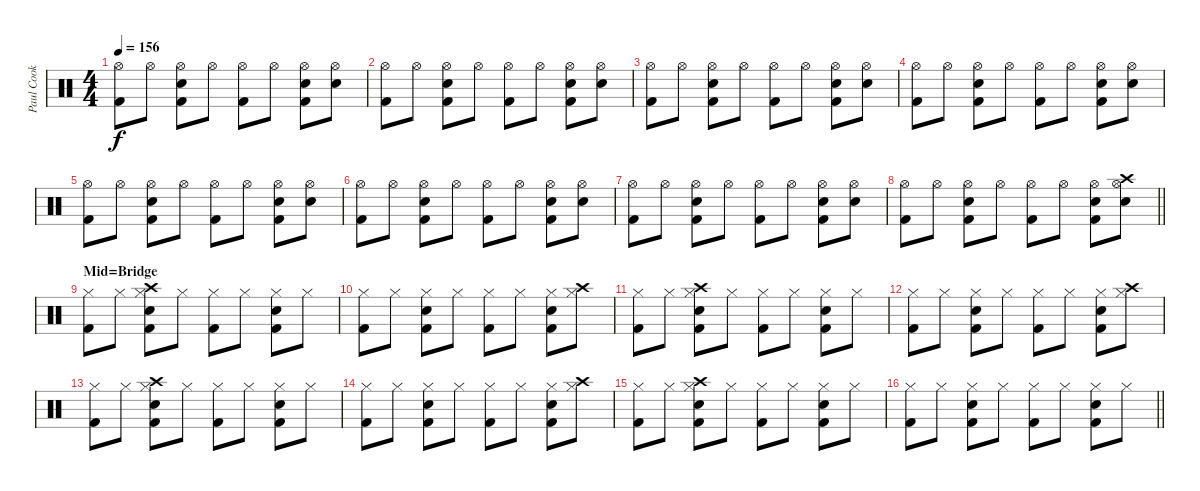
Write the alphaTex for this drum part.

\track ("Paul Cook" "Paul Cook") {instrument percussion}
\staff {score}
\articulation defaults
\ts (4 4)
\tempo 156
\clef neutral
\ks c
("Hi-Hat (open)" "Kick (hit) 2").8{dy f} "Hi-Hat (open)".8 ("Hi-Hat (open)" "Kick (hit) 2" "Snare (hit) 2").8 "Hi-Hat (open)".8 ("Hi-Hat (open)" "Kick (hit) 2").8 "Hi-Hat (open)".8 ("Hi-Hat (open)" "Kick (hit) 2" "Snare (hit) 2").8 ("Hi-Hat (open)" "Snare (hit) 2").8 |
("Hi-Hat (open)" "Kick (hit) 2").8 "Hi-Hat (open)".8 ("Hi-Hat (open)" "Kick (hit) 2" "Snare (hit) 2").8 "Hi-Hat (open)".8 ("Hi-Hat (open)" "Kick (hit) 2").8 "Hi-Hat (open)".8 ("Hi-Hat (open)" "Kick (hit) 2" "Snare (hit) 2").8 ("Hi-Hat (open)" "Snare (hit) 2").8 |
("Hi-Hat (open)" "Kick (hit) 2").8 "Hi-Hat (open)".8 ("Hi-Hat (open)" "Kick (hit) 2" "Snare (hit) 2").8 "Hi-Hat (open)".8 ("Hi-Hat (open)" "Kick (hit) 2").8 "Hi-Hat (open)".8 ("Hi-Hat (open)" "Kick (hit) 2" "Snare (hit) 2").8 ("Hi-Hat (open)" "Snare (hit) 2").8 |
("Hi-Hat (open)" "Kick (hit) 2").8 "Hi-Hat (open)".8 ("Hi-Hat (open)" "Kick (hit) 2" "Snare (hit) 2").8 "Hi-Hat (open)".8 ("Hi-Hat (open)" "Kick (hit) 2").8 "Hi-Hat (open)".8 ("Hi-Hat (open)" "Kick (hit) 2" "Snare (hit) 2").8 ("Hi-Hat (open)" "Snare (hit) 2").8 |
("Hi-Hat (open)" "Kick (hit) 2").8 "Hi-Hat (open)".8 ("Hi-Hat (open)" "Kick (hit) 2" "Snare (hit) 2").8 "Hi-Hat (open)".8 ("Hi-Hat (open)" "Kick (hit) 2").8 "Hi-Hat (open)".8 ("Hi-Hat (open)" "Kick (hit) 2" "Snare (hit) 2").8 ("Hi-Hat (open)" "Snare (hit) 2").8 |
("Hi-Hat (open)" "Kick (hit) 2").8 "Hi-Hat (open)".8 ("Hi-Hat (open)" "Kick (hit) 2" "Snare (hit) 2").8 "Hi-Hat (open)".8 ("Hi-Hat (open)" "Kick (hit) 2").8 "Hi-Hat (open)".8 ("Hi-Hat (open)" "Kick (hit) 2" "Snare (hit) 2").8 ("Hi-Hat (open)" "Snare (hit) 2").8 |
("Hi-Hat (open)" "Kick (hit) 2").8 "Hi-Hat (open)".8 ("Hi-Hat (open)" "Kick (hit) 2" "Snare (hit) 2").8 "Hi-Hat (open)".8 ("Hi-Hat (open)" "Kick (hit) 2").8 "Hi-Hat (open)".8 ("Hi-Hat (open)" "Kick (hit) 2" "Snare (hit) 2").8 ("Hi-Hat (open)" "Snare (hit) 2").8 |
\barLineRight lightlight
("Hi-Hat (open)" "Kick (hit) 2").8 "Hi-Hat (open)".8 ("Hi-Hat (open)" "Kick (hit) 2" "Snare (hit) 2").8 "Hi-Hat (open)".8 ("Hi-Hat (open)" "Kick (hit) 2").8 "Hi-Hat (open)".8 ("Hi-Hat (open)" "Kick (hit) 2" "Snare (hit) 2").8 ("Hi-Hat (open)" "Snare (hit) 2" "Crash high (hit)").8 |
\section ("" "Mid=Bridge")
("Hi-Hat (closed)" "Kick (hit) 2").8 "Hi-Hat (closed)".8 ("Hi-Hat (closed)" "Kick (hit) 2" "Snare (hit) 2" "Crash high (hit)").8 "Hi-Hat (closed)".8 ("Hi-Hat (closed)" "Kick (hit) 2").8 "Hi-Hat (closed)".8 ("Hi-Hat (closed)" "Kick (hit) 2" "Snare (hit) 2").8 "Hi-Hat (closed)".8 |
("Hi-Hat (closed)" "Kick (hit) 2").8 "Hi-Hat (closed)".8 ("Hi-Hat (closed)" "Kick (hit) 2" "Snare (hit) 2").8 "Hi-Hat (closed)".8 ("Hi-Hat (closed)" "Kick (hit) 2").8 "Hi-Hat (closed)".8 ("Hi-Hat (closed)" "Kick (hit) 2" "Snare (hit) 2").8 ("Hi-Hat (closed)" "Crash high (hit)").8 |
("Hi-Hat (closed)" "Kick (hit) 2").8 "Hi-Hat (closed)".8 ("Hi-Hat (closed)" "Kick (hit) 2" "Snare (hit) 2" "Crash high (hit)").8 "Hi-Hat (closed)".8 ("Hi-Hat (closed)" "Kick (hit) 2").8 "Hi-Hat (closed)".8 ("Hi-Hat (closed)" "Kick (hit) 2" "Snare (hit) 2").8 "Hi-Hat (closed)".8 |
("Hi-Hat (closed)" "Kick (hit) 2").8 "Hi-Hat (closed)".8 ("Hi-Hat (closed)" "Kick (hit) 2" "Snare (hit) 2").8 "Hi-Hat (closed)".8 ("Hi-Hat (closed)" "Kick (hit) 2").8 "Hi-Hat (closed)".8 ("Hi-Hat (closed)" "Kick (hit) 2" "Snare (hit) 2").8 ("Hi-Hat (closed)" "Crash high (hit)").8 |
("Hi-Hat (closed)" "Kick (hit) 2").8 "Hi-Hat (closed)".8 ("Hi-Hat (closed)" "Kick (hit) 2" "Snare (hit) 2" "Crash high (hit)").8 "Hi-Hat (closed)".8 ("Hi-Hat (closed)" "Kick (hit) 2").8 "Hi-Hat (closed)".8 ("Hi-Hat (closed)" "Kick (hit) 2" "Snare (hit) 2").8 "Hi-Hat (closed)".8 |
("Hi-Hat (closed)" "Kick (hit) 2").8 "Hi-Hat (closed)".8 ("Hi-Hat (closed)" "Kick (hit) 2" "Snare (hit) 2").8 "Hi-Hat (closed)".8 ("Hi-Hat (closed)" "Kick (hit) 2").8 "Hi-Hat (closed)".8 ("Hi-Hat (closed)" "Kick (hit) 2" "Snare (hit) 2").8 ("Hi-Hat (closed)" "Crash high (hit)").8 |
("Hi-Hat (closed)" "Kick (hit) 2").8 "Hi-Hat (closed)".8 ("Hi-Hat (closed)" "Kick (hit) 2" "Snare (hit) 2" "Crash high (hit)").8 "Hi-Hat (closed)".8 ("Hi-Hat (closed)" "Kick (hit) 2").8 "Hi-Hat (closed)".8 ("Hi-Hat (closed)" "Kick (hit) 2" "Snare (hit) 2").8 "Hi-Hat (closed)".8 |
\barLineRight lightlight
("Hi-Hat (closed)" "Kick (hit) 2").8 "Hi-Hat (closed)".8 ("Hi-Hat (closed)" "Kick (hit) 2" "Snare (hit) 2").8 "Hi-Hat (closed)".8 ("Hi-Hat (closed)" "Kick (hit) 2").8 "Hi-Hat (closed)".8 ("Hi-Hat (closed)" "Kick (hit) 2" "Snare (hit) 2").8 "Hi-Hat (closed)".8
